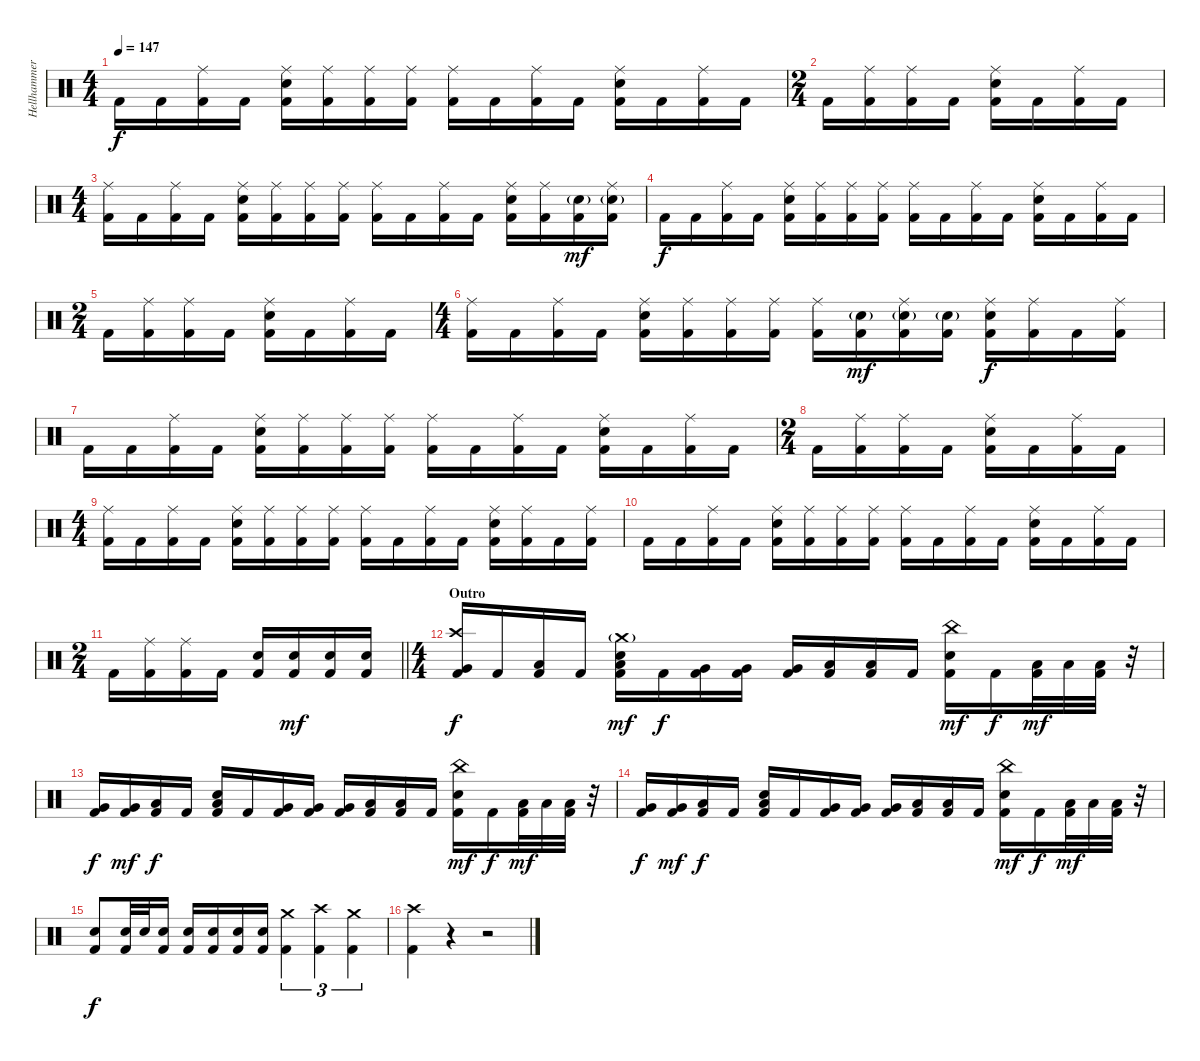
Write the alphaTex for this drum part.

\track ("Hellhammer" "Hellhammer") {instrument percussion}
\staff {score}
\articulation defaults
\ts (4 4)
\tempo 147
\clef neutral
\ks c "Kick (hit) 2".16{dy f} "Kick (hit) 2".16
("Ride (middle)" "Kick (hit) 2").16 "Kick (hit) 2".16 ("Ride (middle)" "Electric Snare (hit)" "Kick (hit) 2").16 ("Ride (middle)" "Kick (hit) 2").16 ("Ride (middle)" "Kick (hit) 2").16 ("Ride (middle)" "Kick (hit) 2").16 ("Ride (middle)" "Kick (hit) 2").16 "Kick (hit) 2".16 ("Ride (middle)" "Kick (hit) 2").16 "Kick (hit) 2".16 ("Ride (middle)" "Electric Snare (hit)" "Kick (hit) 2").16 "Kick (hit) 2".16 ("Ride (middle)" "Kick (hit) 2").16 "Kick (hit) 2".16 |
\ts (2 4)
"Kick (hit) 2".16 ("Ride (middle)" "Kick (hit) 2").16 ("Ride (middle)" "Kick (hit) 2").16 "Kick (hit) 2".16 ("Ride (middle)" "Electric Snare (hit)" "Kick (hit) 2").16 "Kick (hit) 2".16 ("Ride (middle)" "Kick (hit) 2").16 "Kick (hit) 2".16 |
\ts (4 4)
("Ride (middle)" "Kick (hit) 2").16 "Kick (hit) 2".16 ("Ride (middle)" "Kick (hit) 2").16 "Kick (hit) 2".16 ("Ride (middle)" "Electric Snare (hit)" "Kick (hit) 2").16 ("Ride (middle)" "Kick (hit) 2").16 ("Ride (middle)" "Kick (hit) 2").16 ("Ride (middle)" "Kick (hit) 2").16 ("Ride (middle)" "Kick (hit) 2").16 "Kick (hit) 2".16 ("Ride (middle)" "Kick (hit) 2").16 "Kick (hit) 2".16 ("Ride (middle)" "Electric Snare (hit)" "Kick (hit) 2").16 ("Ride (middle)" "Kick (hit) 2").16 ("Electric Snare (hit)"{g} "Kick (hit) 2").16{dy mf} ("Ride (middle)" "Electric Snare (hit)"{g} "Kick (hit) 2").16 |
"Kick (hit) 2".16{dy f} "Kick (hit) 2".16 ("Ride (middle)" "Kick (hit) 2").16 "Kick (hit) 2".16 ("Ride (middle)" "Electric Snare (hit)" "Kick (hit) 2").16 ("Ride (middle)" "Kick (hit) 2").16 ("Ride (middle)" "Kick (hit) 2").16 ("Ride (middle)" "Kick (hit) 2").16 ("Ride (middle)" "Kick (hit) 2").16 "Kick (hit) 2".16 ("Ride (middle)" "Kick (hit) 2").16 "Kick (hit) 2".16 ("Ride (middle)" "Electric Snare (hit)" "Kick (hit) 2").16 "Kick (hit) 2".16 ("Ride (middle)" "Kick (hit) 2").16 "Kick (hit) 2".16 |
\ts (2 4)
"Kick (hit) 2".16 ("Ride (middle)" "Kick (hit) 2").16 ("Ride (middle)" "Kick (hit) 2").16 "Kick (hit) 2".16 ("Ride (middle)" "Electric Snare (hit)" "Kick (hit) 2").16 "Kick (hit) 2".16 ("Ride (middle)" "Kick (hit) 2").16 "Kick (hit) 2".16 |
\ts (4 4)
("Ride (middle)" "Kick (hit) 2").16 "Kick (hit) 2".16 ("Ride (middle)" "Kick (hit) 2").16 "Kick (hit) 2".16 ("Ride (middle)" "Electric Snare (hit)" "Kick (hit) 2").16 ("Ride (middle)" "Kick (hit) 2").16 ("Ride (middle)" "Kick (hit) 2").16 ("Ride (middle)" "Kick (hit) 2").16 ("Ride (middle)" "Kick (hit) 2").16 ("Electric Snare (hit)"{g} "Kick (hit) 2").16{dy mf} ("Ride (middle)" "Electric Snare (hit)"{g} "Kick (hit) 2").16 ("Electric Snare (hit)"{g} "Kick (hit) 2").16 ("Ride (middle)" "Electric Snare (hit)" "Kick (hit) 2").16{dy f} ("Ride (middle)" "Kick (hit) 2").16 "Kick (hit) 2".16 ("Ride (middle)" "Kick (hit) 2").16 |
"Kick (hit) 2".16 "Kick (hit) 2".16 ("Ride (middle)" "Kick (hit) 2").16 "Kick (hit) 2".16 ("Ride (middle)" "Electric Snare (hit)" "Kick (hit) 2").16 ("Ride (middle)" "Kick (hit) 2").16 ("Ride (middle)" "Kick (hit) 2").16 ("Ride (middle)" "Kick (hit) 2").16 ("Ride (middle)" "Kick (hit) 2").16 "Kick (hit) 2".16 ("Ride (middle)" "Kick (hit) 2").16 "Kick (hit) 2".16 ("Ride (middle)" "Electric Snare (hit)" "Kick (hit) 2").16 "Kick (hit) 2".16 ("Ride (middle)" "Kick (hit) 2").16 "Kick (hit) 2".16 |
\ts (2 4)
"Kick (hit) 2".16 ("Ride (middle)" "Kick (hit) 2").16 ("Ride (middle)" "Kick (hit) 2").16 "Kick (hit) 2".16 ("Ride (middle)" "Electric Snare (hit)" "Kick (hit) 2").16 "Kick (hit) 2".16 ("Ride (middle)" "Kick (hit) 2").16 "Kick (hit) 2".16 |
\ts (4 4)
("Ride (middle)" "Kick (hit) 2").16 "Kick (hit) 2".16 ("Ride (middle)" "Kick (hit) 2").16 "Kick (hit) 2".16 ("Ride (middle)" "Electric Snare (hit)" "Kick (hit) 2").16 ("Ride (middle)" "Kick (hit) 2").16 ("Ride (middle)" "Kick (hit) 2").16 ("Ride (middle)" "Kick (hit) 2").16 ("Ride (middle)" "Kick (hit) 2").16 "Kick (hit) 2".16 ("Ride (middle)" "Kick (hit) 2").16 "Kick (hit) 2".16 ("Ride (middle)" "Electric Snare (hit)" "Kick (hit) 2").16 ("Ride (middle)" "Kick (hit) 2").16 "Kick (hit) 2".16 ("Ride (middle)" "Kick (hit) 2").16 |
"Kick (hit) 2".16 "Kick (hit) 2".16 ("Ride (middle)" "Kick (hit) 2").16 "Kick (hit) 2".16 ("Ride (middle)" "Electric Snare (hit)" "Kick (hit) 2").16 ("Ride (middle)" "Kick (hit) 2").16 ("Ride (middle)" "Kick (hit) 2").16 ("Ride (middle)" "Kick (hit) 2").16 ("Ride (middle)" "Kick (hit) 2").16 "Kick (hit) 2".16 ("Ride (middle)" "Kick (hit) 2").16 "Kick (hit) 2".16 ("Ride (middle)" "Electric Snare (hit)" "Kick (hit) 2").16 "Kick (hit) 2".16 ("Ride (middle)" "Kick (hit) 2").16 "Kick (hit) 2".16 |
\ts (2 4)
\barLineRight lightlight "Kick (hit) 2".16
("Ride (middle)" "Kick (hit) 2").16 ("Ride (middle)" "Kick (hit) 2").16 "Kick (hit) 2".16 ("Electric Snare (hit)" "Kick (hit) 2").16 ("Electric Snare (hit)" "Kick (hit) 2").16{dy mf} ("Electric Snare (hit)" "Kick (hit) 2").16 ("Electric Snare (hit)" "Kick (hit) 2").16 |
\ts (4 4)
\section ("" "Outro")
("Crash high (hit)" "Very Low Tom (hit)" "Kick (hit) 2").16{dy f} "Kick (hit) 2".16 ("Low Floor Tom (hit)" "Kick (hit) 2").16 "Kick (hit) 2".16 ("Crash medium (hit)"{g} "Low Floor Tom (hit)" "Electric Snare (hit)" "Kick (hit) 2").16{dy mf} "Kick (hit) 2".16{dy f} ("Very Low Tom (hit)" "Kick (hit) 2").16 ("Very Low Tom (hit)" "Kick (hit) 2").16 ("Very Low Tom (hit)" "Kick (hit) 2").16 ("Low Floor Tom (hit)" "Kick (hit) 2").16 ("Low Floor Tom (hit)" "Kick (hit) 2").16 "Kick (hit) 2".16 ("China (hit)" "Electric Snare (hit)" "Kick (hit) 2").16{dy mf} "Kick (hit) 2".16{dy f} ("Low Floor Tom (hit)" "Kick (hit) 2").32{dy mf} "Low Floor Tom (hit)".32 ("Low Floor Tom (hit)" "Kick (hit) 2").32 r.32 |
("Very Low Tom (hit)" "Kick (hit) 2").16{dy f} ("Very Low Tom (hit)" "Kick (hit) 2").16{dy mf} ("Low Floor Tom (hit)" "Kick (hit) 2").16{dy f} "Kick (hit) 2".16 ("Low Floor Tom (hit)" "Electric Snare (hit)" "Kick (hit) 2").16 "Kick (hit) 2".16 ("Very Low Tom (hit)" "Kick (hit) 2").16 ("Very Low Tom (hit)" "Kick (hit) 2").16 ("Very Low Tom (hit)" "Kick (hit) 2").16 ("Low Floor Tom (hit)" "Kick (hit) 2").16 ("Low Floor Tom (hit)" "Kick (hit) 2").16 "Kick (hit) 2".16 ("China (hit)" "Electric Snare (hit)" "Kick (hit) 2").16{dy mf} "Kick (hit) 2".16{dy f} ("Low Floor Tom (hit)" "Kick (hit) 2").32{dy mf} "Low Floor Tom (hit)".32 ("Low Floor Tom (hit)" "Kick (hit) 2").32 r.32 |
("Very Low Tom (hit)" "Kick (hit) 2").16{dy f} ("Very Low Tom (hit)" "Kick (hit) 2").16{dy mf} ("Low Floor Tom (hit)" "Kick (hit) 2").16{dy f} "Kick (hit) 2".16 ("Low Floor Tom (hit)" "Electric Snare (hit)" "Kick (hit) 2").16 "Kick (hit) 2".16 ("Very Low Tom (hit)" "Kick (hit) 2").16 ("Very Low Tom (hit)" "Kick (hit) 2").16 ("Very Low Tom (hit)" "Kick (hit) 2").16 ("Low Floor Tom (hit)" "Kick (hit) 2").16 ("Low Floor Tom (hit)" "Kick (hit) 2").16 "Kick (hit) 2".16 ("China (hit)" "Electric Snare (hit)" "Kick (hit) 2").16{dy mf} "Kick (hit) 2".16{dy f} ("Low Floor Tom (hit)" "Kick (hit) 2").32{dy mf} "Low Floor Tom (hit)".32 ("Low Floor Tom (hit)" "Kick (hit) 2").32 r.32 |
("Electric Snare (hit)" "Kick (hit) 2").8{dy f} ("Electric Snare (hit)" "Kick (hit) 2").32 "Electric Snare (hit)".32 ("Electric Snare (hit)" "Kick (hit) 2").16 ("Electric Snare (hit)" "Kick (hit) 2").16 ("Electric Snare (hit)" "Kick (hit) 2").16 ("Electric Snare (hit)" "Kick (hit) 2").16 ("Electric Snare (hit)" "Kick (hit) 2").16 ("Crash medium (hit)" "Kick (hit) 2").4{tu (3 2)} ("Crash high (hit)" "Kick (hit) 2").4{tu (3 2)} ("Crash medium (hit)" "Kick (hit) 2").4{tu (3 2)} |
("Crash high (hit)" "Kick (hit) 2").4 r.4 r.2
